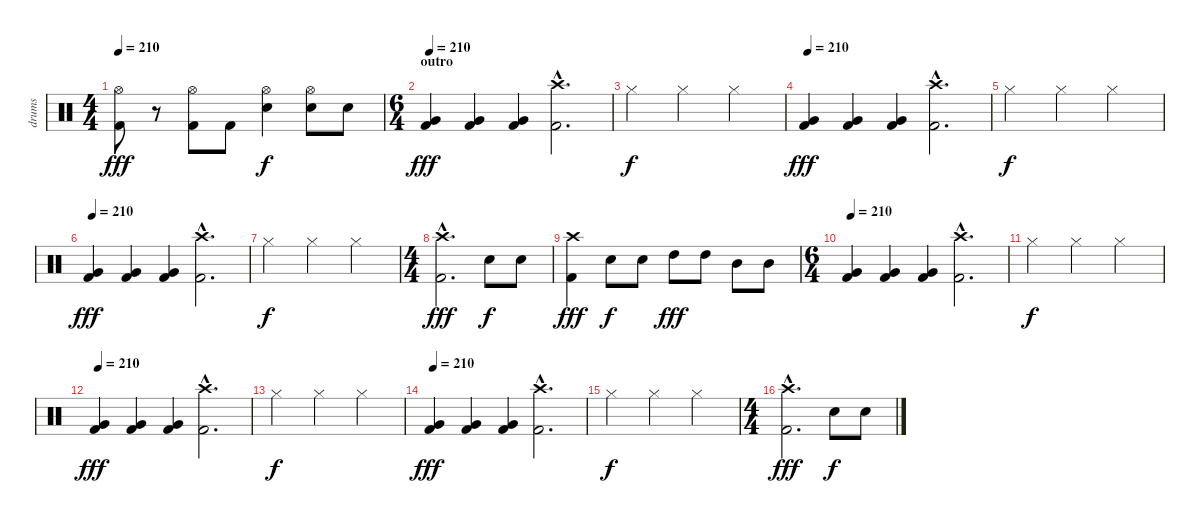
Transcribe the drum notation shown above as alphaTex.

\track ("drums" "drums") {instrument percussion}
\staff {score}
\articulation defaults
\ts (4 4)
\tempo 210
\clef neutral
\ks c
("Hi-Hat (open)" "Kick (hit) 2").8{dy fff} r.8 ("Hi-Hat (open)" "Kick (hit) 2").8 "Kick (hit) 2".8 ("Hi-Hat (open)" "Snare (hit) 2").4{dy f} ("Hi-Hat (open)" "Snare (hit) 2").8 "Snare (hit) 2".8 |
\ts (6 4)
\section ("" "outro")
\tempo 210
("Very Low Tom (hit)" "Kick (hit) 2").4{dy fff} ("Very Low Tom (hit)" "Kick (hit) 2").4 ("Very Low Tom (hit)" "Kick (hit) 2").4 ("Crash high (hit)"{hac} "Kick (hit) 2"{hac}).2{d} |
"Hi-Hat (closed)".2{dy f} "Hi-Hat (closed)".2 "Hi-Hat (closed)".2 |
\tempo 210
("Very Low Tom (hit)" "Kick (hit) 2").4{dy fff} ("Very Low Tom (hit)" "Kick (hit) 2").4 ("Very Low Tom (hit)" "Kick (hit) 2").4 ("Crash high (hit)"{hac} "Kick (hit) 2"{hac}).2{d} |
"Hi-Hat (closed)".2{dy f} "Hi-Hat (closed)".2 "Hi-Hat (closed)".2 |
\tempo 210
("Very Low Tom (hit)" "Kick (hit) 2").4{dy fff} ("Very Low Tom (hit)" "Kick (hit) 2").4 ("Very Low Tom (hit)" "Kick (hit) 2").4 ("Crash high (hit)"{hac} "Kick (hit) 2"{hac}).2{d} |
"Hi-Hat (closed)".2{dy f} "Hi-Hat (closed)".2 "Hi-Hat (closed)".2 |
\ts (4 4)
("Crash high (hit)"{hac} "Kick (hit) 2"{hac}).2{d dy fff} "Snare (hit) 2".8{dy f} "Snare (hit) 2".8 |
("Crash high (hit)" "Kick (hit) 2").4{dy fff} "Snare (hit) 2".8{dy f} "Snare (hit) 2".8 "High Tom (hit)".8{dy fff} "High Tom (hit)".8 "Mid Tom (hit)".8 "Mid Tom (hit)".8 |
\ts (6 4)
\tempo 210
("Very Low Tom (hit)" "Kick (hit) 2").4 ("Very Low Tom (hit)" "Kick (hit) 2").4 ("Very Low Tom (hit)" "Kick (hit) 2").4 ("Crash high (hit)"{hac} "Kick (hit) 2"{hac}).2{d} |
"Hi-Hat (closed)".2{dy f} "Hi-Hat (closed)".2 "Hi-Hat (closed)".2 |
\tempo 210
("Very Low Tom (hit)" "Kick (hit) 2").4{dy fff} ("Very Low Tom (hit)" "Kick (hit) 2").4 ("Very Low Tom (hit)" "Kick (hit) 2").4 ("Crash high (hit)"{hac} "Kick (hit) 2"{hac}).2{d} |
"Hi-Hat (closed)".2{dy f} "Hi-Hat (closed)".2 "Hi-Hat (closed)".2 |
\tempo 210
("Very Low Tom (hit)" "Kick (hit) 2").4{dy fff} ("Very Low Tom (hit)" "Kick (hit) 2").4 ("Very Low Tom (hit)" "Kick (hit) 2").4 ("Crash high (hit)"{hac} "Kick (hit) 2"{hac}).2{d} |
"Hi-Hat (closed)".2{dy f} "Hi-Hat (closed)".2 "Hi-Hat (closed)".2 |
\ts (4 4)
("Crash high (hit)"{hac} "Kick (hit) 2"{hac}).2{d dy fff} "Snare (hit) 2".8{dy f} "Snare (hit) 2".8
